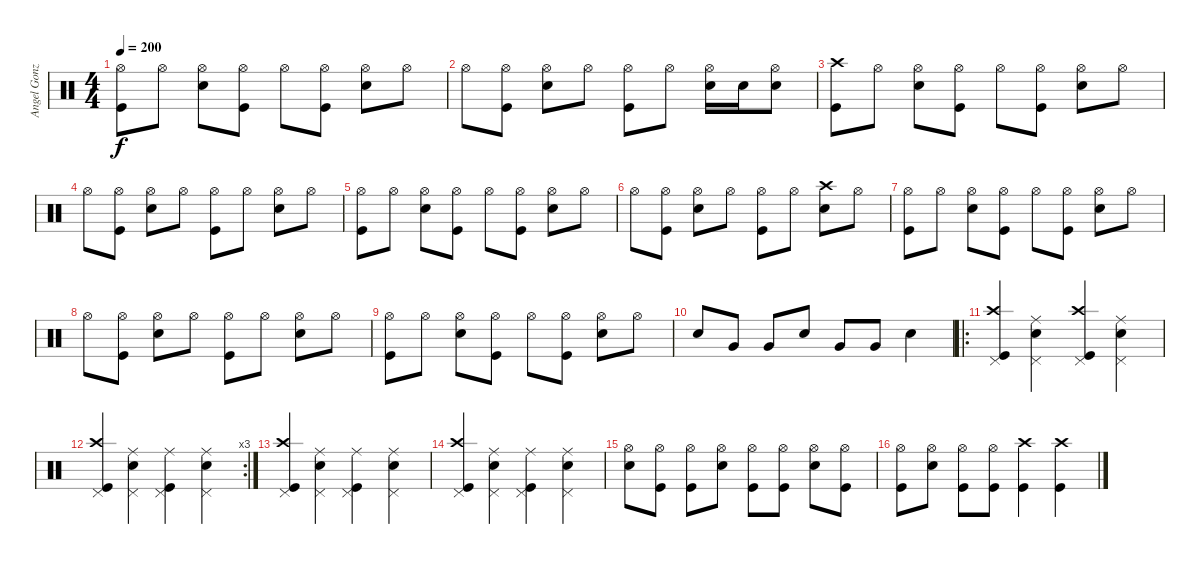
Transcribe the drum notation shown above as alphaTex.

\track ("Angel Gonzalez - Batería" "Angel Gonz") {instrument percussion}
\staff {score}
\articulation defaults
\ts (4 4)
\tempo 200
\clef neutral
\ks c
("Hi-Hat (open)" "Kick (hit)").8{dy f} "Hi-Hat (open)".8 ("Snare (hit) 2" "Hi-Hat (open)").8 ("Hi-Hat (open)" "Kick (hit)").8 "Hi-Hat (open)".8 ("Hi-Hat (open)" "Kick (hit)").8 ("Snare (hit) 2" "Hi-Hat (open)").8 "Hi-Hat (open)".8 |
"Hi-Hat (open)".8 ("Hi-Hat (open)" "Kick (hit)").8 ("Snare (hit) 2" "Hi-Hat (open)").8 "Hi-Hat (open)".8 ("Hi-Hat (open)" "Kick (hit)").8 "Hi-Hat (open)".8 ("Snare (hit) 2" "Hi-Hat (open)").16 "Snare (hit) 2".16 ("Snare (hit) 2" "Hi-Hat (open)").8 |
("Crash high (hit)" "Kick (hit)").8 "Hi-Hat (open)".8 ("Snare (hit) 2" "Hi-Hat (open)").8 ("Hi-Hat (open)" "Kick (hit)").8 "Hi-Hat (open)".8 ("Hi-Hat (open)" "Kick (hit)").8 ("Snare (hit) 2" "Hi-Hat (open)").8 "Hi-Hat (open)".8 |
"Hi-Hat (open)".8 ("Hi-Hat (open)" "Kick (hit)").8 ("Snare (hit) 2" "Hi-Hat (open)").8 "Hi-Hat (open)".8 ("Hi-Hat (open)" "Kick (hit)").8 "Hi-Hat (open)".8 ("Snare (hit) 2" "Hi-Hat (open)").8 "Hi-Hat (open)".8 |
("Hi-Hat (open)" "Kick (hit)").8 "Hi-Hat (open)".8 ("Snare (hit) 2" "Hi-Hat (open)").8 ("Hi-Hat (open)" "Kick (hit)").8 "Hi-Hat (open)".8 ("Hi-Hat (open)" "Kick (hit)").8 ("Snare (hit) 2" "Hi-Hat (open)").8 "Hi-Hat (open)".8 |
"Hi-Hat (open)".8 ("Hi-Hat (open)" "Kick (hit)").8 ("Snare (hit) 2" "Hi-Hat (open)").8 "Hi-Hat (open)".8 ("Hi-Hat (open)" "Kick (hit)").8 "Hi-Hat (open)".8 ("Crash high (hit)" "Snare (hit) 2").8 "Hi-Hat (open)".8 |
("Hi-Hat (open)" "Kick (hit)").8 "Hi-Hat (open)".8 ("Snare (hit) 2" "Hi-Hat (open)").8 ("Hi-Hat (open)" "Kick (hit)").8 "Hi-Hat (open)".8 ("Hi-Hat (open)" "Kick (hit)").8 ("Snare (hit) 2" "Hi-Hat (open)").8 "Hi-Hat (open)".8 |
"Hi-Hat (open)".8 ("Hi-Hat (open)" "Kick (hit)").8 ("Snare (hit) 2" "Hi-Hat (open)").8 "Hi-Hat (open)".8 ("Hi-Hat (open)" "Kick (hit)").8 "Hi-Hat (open)".8 ("Snare (hit) 2" "Hi-Hat (open)").8 "Hi-Hat (open)".8 |
("Hi-Hat (open)" "Kick (hit)").8 "Hi-Hat (open)".8 ("Snare (hit) 2" "Hi-Hat (open)").8 ("Hi-Hat (open)" "Kick (hit)").8 "Hi-Hat (open)".8 ("Hi-Hat (open)" "Kick (hit)").8 ("Snare (hit) 2" "Hi-Hat (open)").8 "Hi-Hat (open)".8 |
"Snare (hit) 2".8 "Very Low Tom (hit)".8 "Very Low Tom (hit)".8 "Snare (hit) 2".8 "Very Low Tom (hit)".8 "Very Low Tom (hit)".8 "Snare (hit) 2".4 |
\ro
("Crash high (hit)" "Pedal Hi-Hat (hit)" "Kick (hit)").4 ("Ride (middle)" "Snare (hit) 2" "Pedal Hi-Hat (hit)").4 ("Crash high (hit)" "Pedal Hi-Hat (hit)" "Kick (hit)").4 ("Ride (middle)" "Snare (hit) 2" "Pedal Hi-Hat (hit)").4 |
\rc 3
("Crash high (hit)" "Pedal Hi-Hat (hit)" "Kick (hit)").4 ("Ride (middle)" "Snare (hit) 2" "Pedal Hi-Hat (hit)").4 ("Ride (middle)" "Pedal Hi-Hat (hit)" "Kick (hit)").4 ("Ride (middle)" "Snare (hit) 2" "Pedal Hi-Hat (hit)").4 |
("Crash high (hit)" "Pedal Hi-Hat (hit)" "Kick (hit)").4 ("Ride (middle)" "Snare (hit) 2" "Pedal Hi-Hat (hit)").4 ("Ride (middle)" "Pedal Hi-Hat (hit)" "Kick (hit)").4 ("Ride (middle)" "Snare (hit) 2" "Pedal Hi-Hat (hit)").4 |
("Crash high (hit)" "Pedal Hi-Hat (hit)" "Kick (hit)").4 ("Ride (middle)" "Snare (hit) 2" "Pedal Hi-Hat (hit)").4 ("Ride (middle)" "Pedal Hi-Hat (hit)" "Kick (hit)").4 ("Ride (middle)" "Snare (hit) 2" "Pedal Hi-Hat (hit)").4 |
("Snare (hit) 2" "Hi-Hat (open)").8 ("Hi-Hat (open)" "Kick (hit)").8 ("Hi-Hat (open)" "Kick (hit)").8 ("Snare (hit) 2" "Hi-Hat (open)").8 ("Hi-Hat (open)" "Kick (hit)").8 ("Hi-Hat (open)" "Kick (hit)").8 ("Snare (hit) 2" "Hi-Hat (open)").8 ("Hi-Hat (open)" "Kick (hit)").8 |
("Hi-Hat (open)" "Kick (hit)").8 ("Snare (hit) 2" "Hi-Hat (open)").8 ("Hi-Hat (open)" "Kick (hit)").8 ("Hi-Hat (open)" "Kick (hit)").8 ("Crash high (hit)" "Kick (hit)").4 ("Crash high (hit)" "Kick (hit)").4
